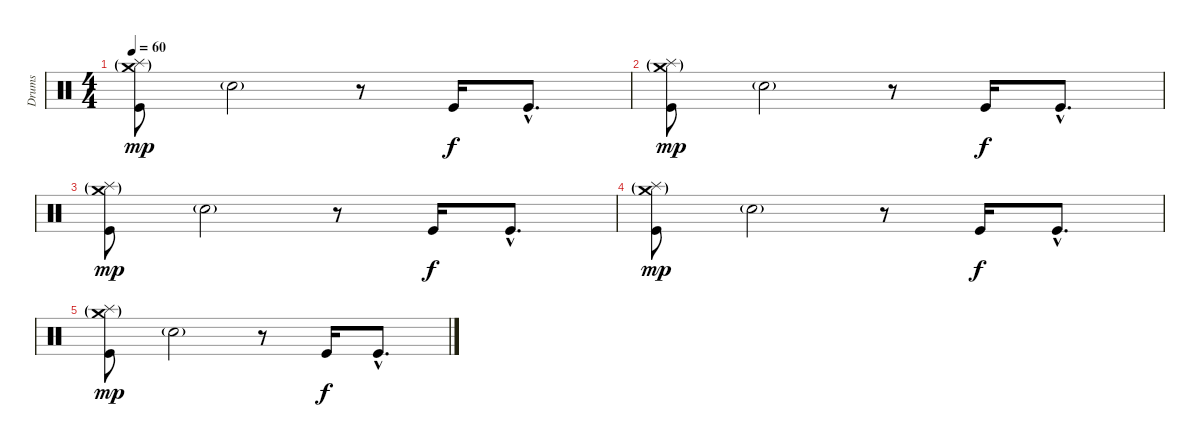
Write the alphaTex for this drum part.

\track ("Drums" "Drums") {instrument percussion}
\staff {score}
\articulation defaults
\ts (4 4)
\tempo 60
\clef neutral
\ks c
("Splash (hit)"{g} "Crash medium (hit)"{g} "Kick (hit)").8{dy mp volume 8} "Electric Snare (hit)"{g}.2 r.8 "Kick (hit)".16{dy f} "Kick (hit)"{hac}.8{d} |
("Splash (hit)"{g} "Crash medium (hit)"{g} "Kick (hit)").8{dy mp} "Electric Snare (hit)"{g}.2 r.8 "Kick (hit)".16{dy f} "Kick (hit)"{hac}.8{d} |
("Splash (hit)"{g} "Crash medium (hit)"{g} "Kick (hit)").8{dy mp} "Electric Snare (hit)"{g}.2 r.8 "Kick (hit)".16{dy f} "Kick (hit)"{hac}.8{d} |
("Splash (hit)"{g} "Crash medium (hit)"{g} "Kick (hit)").8{dy mp volume 0} "Electric Snare (hit)"{g}.2 r.8 "Kick (hit)".16{dy f} "Kick (hit)"{hac}.8{d} |
("Splash (hit)"{g} "Crash medium (hit)"{g} "Kick (hit)").8{dy mp} "Electric Snare (hit)"{g}.2 r.8 "Kick (hit)".16{dy f} "Kick (hit)"{hac}.8{d}
